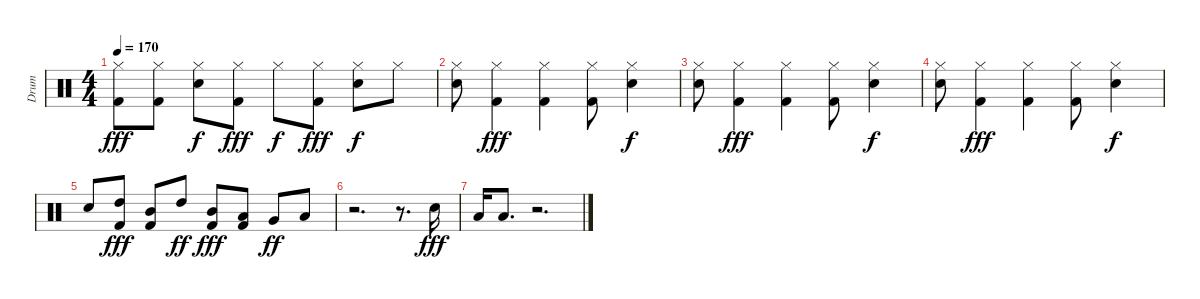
\track ("Drum" "Drum") {instrument percussion}
\staff {score}
\articulation defaults
\ts (4 4)
\tempo 170
\clef neutral
\ks c
("Hi-Hat (closed)" "Kick (hit) 2").8{dy fff} ("Hi-Hat (closed)" "Kick (hit) 2").8 ("Hi-Hat (closed)" "Snare (hit) 2").8{dy f} ("Hi-Hat (closed)" "Kick (hit) 2").8{dy fff} "Hi-Hat (closed)".8{dy f} ("Hi-Hat (closed)" "Kick (hit) 2").8{dy fff} ("Hi-Hat (closed)" "Snare (hit) 2").8{dy f} "Hi-Hat (closed)".8 |
("Hi-Hat (closed)" "Snare (hit) 2").8 ("Hi-Hat (closed)" "Kick (hit) 2").4{dy fff} ("Hi-Hat (closed)" "Kick (hit) 2").4 ("Hi-Hat (closed)" "Kick (hit) 2").8 ("Hi-Hat (closed)" "Snare (hit) 2").4{dy f} |
("Hi-Hat (closed)" "Snare (hit) 2").8 ("Hi-Hat (closed)" "Kick (hit) 2").4{dy fff} ("Hi-Hat (closed)" "Kick (hit) 2").4 ("Hi-Hat (closed)" "Kick (hit) 2").8 ("Hi-Hat (closed)" "Snare (hit) 2").4{dy f} |
("Hi-Hat (closed)" "Snare (hit) 2").8 ("Hi-Hat (closed)" "Kick (hit) 2").4{dy fff} ("Hi-Hat (closed)" "Kick (hit) 2").4 ("Hi-Hat (closed)" "Kick (hit) 2").8 ("Hi-Hat (closed)" "Snare (hit) 2").4{dy f} |
"Snare (hit) 2".8 ("High Tom (hit)" "Kick (hit) 2").8{dy fff} ("Mid Tom (hit)" "Kick (hit) 2").8 "High Tom (hit)".8{dy ff} ("Mid Tom (hit)" "Kick (hit) 2").8{dy fff} ("Low Tom (hit)" "Kick (hit) 2").8 "Very Low Tom (hit)".8{dy ff} "Low Floor Tom (hit)".8 |
r.2{d} r.8{d} "Snare (hit) 2".16{dy fff} |
"Low Tom (hit)".16 "Low Floor Tom (hit)".8{d} r.2{d}
